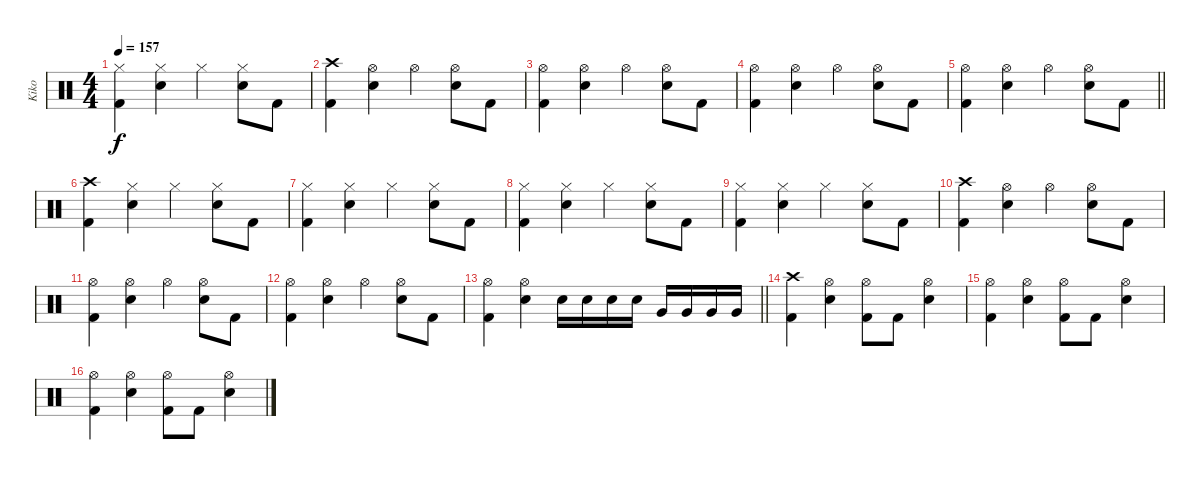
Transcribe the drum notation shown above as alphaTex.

\track ("Kiko" "Kiko") {instrument percussion}
\staff {score}
\articulation defaults
\ts (4 4)
\tempo 157
\clef neutral
\ks c
("Hi-Hat (closed)" "Kick (hit) 2").4{dy f} ("Hi-Hat (closed)" "Electric Snare (hit)").4 "Hi-Hat (closed)".4 ("Hi-Hat (closed)" "Electric Snare (hit)").8 "Kick (hit) 2".8 |
("Crash high (hit)" "Kick (hit) 2").4 ("Hi-Hat (open)" "Electric Snare (hit)").4 "Hi-Hat (open)".4 ("Hi-Hat (open)" "Electric Snare (hit)").8 "Kick (hit) 2".8 |
("Hi-Hat (open)" "Kick (hit) 2").4 ("Hi-Hat (open)" "Electric Snare (hit)").4 "Hi-Hat (open)".4 ("Hi-Hat (open)" "Electric Snare (hit)").8 "Kick (hit) 2".8 |
("Hi-Hat (open)" "Kick (hit) 2").4 ("Hi-Hat (open)" "Electric Snare (hit)").4 "Hi-Hat (open)".4 ("Hi-Hat (open)" "Electric Snare (hit)").8 "Kick (hit) 2".8 |
\barLineRight lightlight
("Hi-Hat (open)" "Kick (hit) 2").4 ("Hi-Hat (open)" "Electric Snare (hit)").4 "Hi-Hat (open)".4 ("Hi-Hat (open)" "Electric Snare (hit)").8 "Kick (hit) 2".8 |
("Crash high (hit)" "Kick (hit) 2").4 ("Hi-Hat (closed)" "Electric Snare (hit)").4 "Hi-Hat (closed)".4 ("Hi-Hat (closed)" "Electric Snare (hit)").8 "Kick (hit) 2".8 |
("Hi-Hat (closed)" "Kick (hit) 2").4 ("Hi-Hat (closed)" "Electric Snare (hit)").4 "Hi-Hat (closed)".4 ("Hi-Hat (closed)" "Electric Snare (hit)").8 "Kick (hit) 2".8 |
("Hi-Hat (closed)" "Kick (hit) 2").4 ("Hi-Hat (closed)" "Electric Snare (hit)").4 "Hi-Hat (closed)".4 ("Hi-Hat (closed)" "Electric Snare (hit)").8 "Kick (hit) 2".8 |
("Hi-Hat (closed)" "Kick (hit) 2").4 ("Hi-Hat (closed)" "Electric Snare (hit)").4 "Hi-Hat (closed)".4 ("Hi-Hat (closed)" "Electric Snare (hit)").8 "Kick (hit) 2".8 |
("Crash high (hit)" "Kick (hit) 2").4 ("Hi-Hat (open)" "Electric Snare (hit)").4 "Hi-Hat (open)".4 ("Hi-Hat (open)" "Electric Snare (hit)").8 "Kick (hit) 2".8 |
("Hi-Hat (open)" "Kick (hit) 2").4 ("Hi-Hat (open)" "Electric Snare (hit)").4 "Hi-Hat (open)".4 ("Hi-Hat (open)" "Electric Snare (hit)").8 "Kick (hit) 2".8 |
("Hi-Hat (open)" "Kick (hit) 2").4 ("Hi-Hat (open)" "Electric Snare (hit)").4 "Hi-Hat (open)".4 ("Hi-Hat (open)" "Electric Snare (hit)").8 "Kick (hit) 2".8 |
\barLineRight lightlight
("Hi-Hat (open)" "Kick (hit) 2").4 ("Hi-Hat (open)" "Electric Snare (hit)").4 "Electric Snare (hit)".16 "Electric Snare (hit)".16 "Electric Snare (hit)".16 "Electric Snare (hit)".16 "Very Low Tom (hit)".16 "Very Low Tom (hit)".16 "Very Low Tom (hit)".16 "Very Low Tom (hit)".16 |
("Crash high (hit)" "Kick (hit) 2").4 ("Hi-Hat (open)" "Electric Snare (hit)").4 ("Hi-Hat (open)" "Kick (hit) 2").8 "Kick (hit) 2".8 ("Hi-Hat (open)" "Electric Snare (hit)").4 |
("Hi-Hat (open)" "Kick (hit) 2").4 ("Hi-Hat (open)" "Electric Snare (hit)").4 ("Hi-Hat (open)" "Kick (hit) 2").8 "Kick (hit) 2".8 ("Hi-Hat (open)" "Electric Snare (hit)").4 |
("Hi-Hat (open)" "Kick (hit) 2").4 ("Hi-Hat (open)" "Electric Snare (hit)").4 ("Hi-Hat (open)" "Kick (hit) 2").8 "Kick (hit) 2".8 ("Hi-Hat (open)" "Electric Snare (hit)").4
